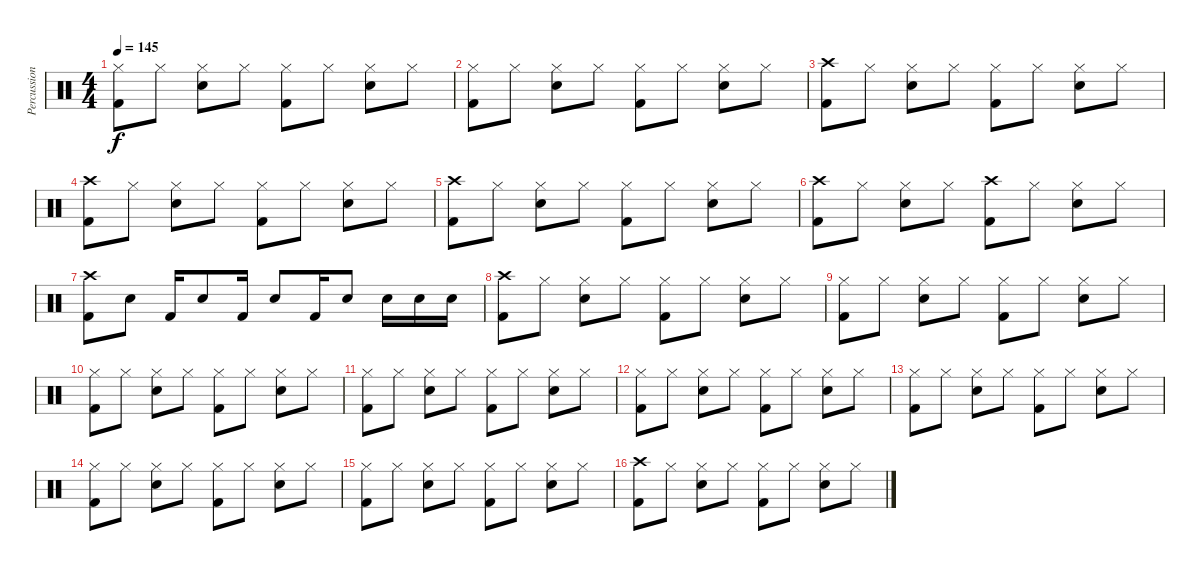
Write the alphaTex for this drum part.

\track ("Percussion" "Percussion") {instrument percussion}
\staff {score}
\articulation defaults
\ts (4 4)
\tempo 145
\clef neutral
\ks c
("Hi-Hat (closed)" "Kick (hit) 2").8{dy f} "Hi-Hat (closed)".8 ("Hi-Hat (closed)" "Snare (hit) 2").8 "Hi-Hat (closed)".8 ("Hi-Hat (closed)" "Kick (hit) 2").8 "Hi-Hat (closed)".8 ("Hi-Hat (closed)" "Snare (hit) 2").8 "Hi-Hat (closed)".8 |
("Hi-Hat (closed)" "Kick (hit) 2").8 "Hi-Hat (closed)".8 ("Hi-Hat (closed)" "Snare (hit) 2").8 "Hi-Hat (closed)".8 ("Hi-Hat (closed)" "Kick (hit) 2").8 "Hi-Hat (closed)".8 ("Hi-Hat (closed)" "Snare (hit) 2").8 "Hi-Hat (closed)".8 |
("Crash high (hit)" "Kick (hit) 2").8 "Hi-Hat (closed)".8 ("Hi-Hat (closed)" "Snare (hit) 2").8 "Hi-Hat (closed)".8 ("Hi-Hat (closed)" "Kick (hit) 2").8 "Hi-Hat (closed)".8 ("Hi-Hat (closed)" "Snare (hit) 2").8 "Hi-Hat (closed)".8 |
("Crash high (hit)" "Kick (hit) 2").8 "Hi-Hat (closed)".8 ("Hi-Hat (closed)" "Snare (hit) 2").8 "Hi-Hat (closed)".8 ("Hi-Hat (closed)" "Kick (hit) 2").8 "Hi-Hat (closed)".8 ("Hi-Hat (closed)" "Snare (hit) 2").8 "Hi-Hat (closed)".8 |
("Crash high (hit)" "Kick (hit) 2").8 "Hi-Hat (closed)".8 ("Hi-Hat (closed)" "Snare (hit) 2").8 "Hi-Hat (closed)".8 ("Hi-Hat (closed)" "Kick (hit) 2").8 "Hi-Hat (closed)".8 ("Hi-Hat (closed)" "Snare (hit) 2").8 "Hi-Hat (closed)".8 |
("Crash high (hit)" "Kick (hit) 2").8 "Hi-Hat (closed)".8 ("Hi-Hat (closed)" "Snare (hit) 2").8 "Hi-Hat (closed)".8 ("Crash high (hit)" "Kick (hit) 2").8 "Hi-Hat (closed)".8 ("Hi-Hat (closed)" "Snare (hit) 2").8 "Hi-Hat (closed)".8 |
("Crash high (hit)" "Kick (hit) 2").8 "Electric Snare (hit)".8 "Kick (hit) 2".16 "Electric Snare (hit)".8 "Kick (hit) 2".16 "Electric Snare (hit)".8 "Kick (hit) 2".16 "Electric Snare (hit)".8 "Electric Snare (hit)".16 "Electric Snare (hit)".16 "Electric Snare (hit)".16 |
("Crash high (hit)" "Kick (hit) 2").8 "Hi-Hat (closed)".8 ("Hi-Hat (closed)" "Snare (hit) 2").8 "Hi-Hat (closed)".8 ("Hi-Hat (closed)" "Kick (hit) 2").8 "Hi-Hat (closed)".8 ("Hi-Hat (closed)" "Snare (hit) 2").8 "Hi-Hat (closed)".8 |
("Hi-Hat (closed)" "Kick (hit) 2").8 "Hi-Hat (closed)".8 ("Hi-Hat (closed)" "Snare (hit) 2").8 "Hi-Hat (closed)".8 ("Hi-Hat (closed)" "Kick (hit) 2").8 "Hi-Hat (closed)".8 ("Hi-Hat (closed)" "Snare (hit) 2").8 "Hi-Hat (closed)".8 |
("Hi-Hat (closed)" "Kick (hit) 2").8 "Hi-Hat (closed)".8 ("Hi-Hat (closed)" "Snare (hit) 2").8 "Hi-Hat (closed)".8 ("Hi-Hat (closed)" "Kick (hit) 2").8 "Hi-Hat (closed)".8 ("Hi-Hat (closed)" "Snare (hit) 2").8 "Hi-Hat (closed)".8 |
("Hi-Hat (closed)" "Kick (hit) 2").8 "Hi-Hat (closed)".8 ("Hi-Hat (closed)" "Snare (hit) 2").8 "Hi-Hat (closed)".8 ("Hi-Hat (closed)" "Kick (hit) 2").8 "Hi-Hat (closed)".8 ("Hi-Hat (closed)" "Snare (hit) 2").8 "Hi-Hat (closed)".8 |
("Hi-Hat (closed)" "Kick (hit) 2").8 "Hi-Hat (closed)".8 ("Hi-Hat (closed)" "Snare (hit) 2").8 "Hi-Hat (closed)".8 ("Hi-Hat (closed)" "Kick (hit) 2").8 "Hi-Hat (closed)".8 ("Hi-Hat (closed)" "Snare (hit) 2").8 "Hi-Hat (closed)".8 |
("Hi-Hat (closed)" "Kick (hit) 2").8 "Hi-Hat (closed)".8 ("Hi-Hat (closed)" "Snare (hit) 2").8 "Hi-Hat (closed)".8 ("Hi-Hat (closed)" "Kick (hit) 2").8 "Hi-Hat (closed)".8 ("Hi-Hat (closed)" "Snare (hit) 2").8 "Hi-Hat (closed)".8 |
("Hi-Hat (closed)" "Kick (hit) 2").8 "Hi-Hat (closed)".8 ("Hi-Hat (closed)" "Snare (hit) 2").8 "Hi-Hat (closed)".8 ("Hi-Hat (closed)" "Kick (hit) 2").8 "Hi-Hat (closed)".8 ("Hi-Hat (closed)" "Snare (hit) 2").8 "Hi-Hat (closed)".8 |
("Hi-Hat (closed)" "Kick (hit) 2").8 "Hi-Hat (closed)".8 ("Hi-Hat (closed)" "Snare (hit) 2").8 "Hi-Hat (closed)".8 ("Hi-Hat (closed)" "Kick (hit) 2").8 "Hi-Hat (closed)".8 ("Hi-Hat (closed)" "Snare (hit) 2").8 "Hi-Hat (closed)".8 |
("Crash high (hit)" "Kick (hit) 2").8 "Hi-Hat (closed)".8 ("Hi-Hat (closed)" "Snare (hit) 2").8 "Hi-Hat (closed)".8 ("Hi-Hat (closed)" "Kick (hit) 2").8 "Hi-Hat (closed)".8 ("Hi-Hat (closed)" "Snare (hit) 2").8 "Hi-Hat (closed)".8
